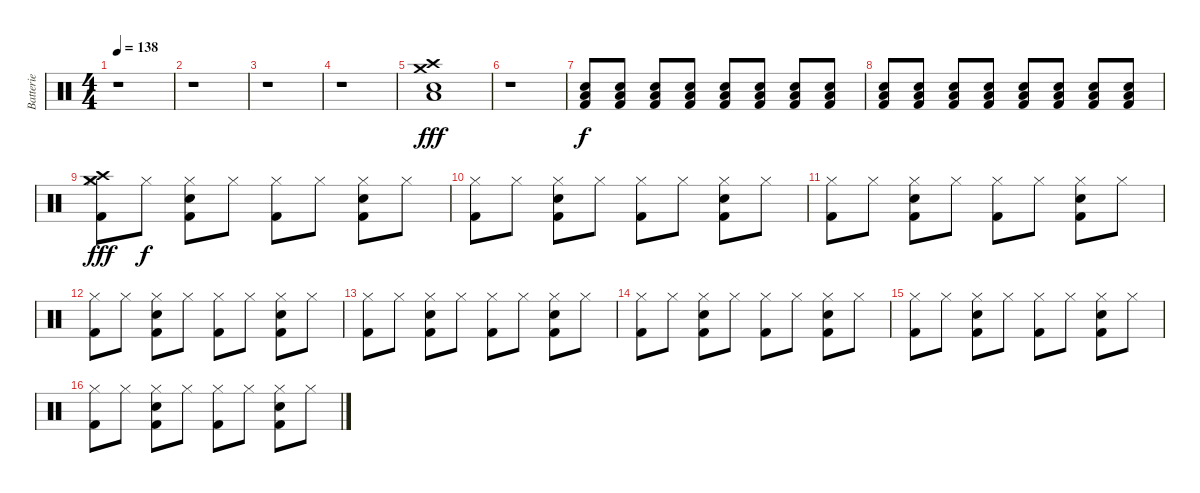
\track ("Batterie" "Batterie") {instrument percussion}
\staff {score}
\articulation defaults
\ts (4 4)
\tempo 138
\clef neutral
\ks c
r.1{dy fff} |
r.1 |
r.1 |
r.1 |
("Crash medium (hit)" "Crash high (hit)" "Electric Snare (hit)" "Low Floor Tom (hit)").1{volume 16} |
r.1 |
("Electric Snare (hit)" "Low Floor Tom (hit)" "Kick (hit) 2").8{dy f volume 8} ("Electric Snare (hit)" "Low Floor Tom (hit)" "Kick (hit) 2").8{volume 14} ("Electric Snare (hit)" "Low Floor Tom (hit)" "Kick (hit) 2").8 ("Electric Snare (hit)" "Low Floor Tom (hit)" "Kick (hit) 2").8 ("Electric Snare (hit)" "Low Floor Tom (hit)" "Kick (hit) 2").8 ("Electric Snare (hit)" "Low Floor Tom (hit)" "Kick (hit) 2").8 ("Electric Snare (hit)" "Low Floor Tom (hit)" "Kick (hit) 2").8 ("Electric Snare (hit)" "Low Floor Tom (hit)" "Kick (hit) 2").8 |
("Electric Snare (hit)" "Low Floor Tom (hit)" "Kick (hit) 2").8 ("Electric Snare (hit)" "Low Floor Tom (hit)" "Kick (hit) 2").8 ("Electric Snare (hit)" "Low Floor Tom (hit)" "Kick (hit) 2").8 ("Electric Snare (hit)" "Low Floor Tom (hit)" "Kick (hit) 2").8 ("Electric Snare (hit)" "Low Floor Tom (hit)" "Kick (hit) 2").8 ("Electric Snare (hit)" "Low Floor Tom (hit)" "Kick (hit) 2").8 ("Electric Snare (hit)" "Low Floor Tom (hit)" "Kick (hit) 2").8 ("Electric Snare (hit)" "Low Floor Tom (hit)" "Kick (hit) 2").8 |
("Crash high (hit)" "Crash medium (hit)" "Hi-Hat (closed)" "Kick (hit) 2").8{dy fff} "Hi-Hat (closed)".8{dy f} ("Hi-Hat (closed)" "Electric Snare (hit)" "Kick (hit) 2").8 "Hi-Hat (closed)".8 ("Hi-Hat (closed)" "Kick (hit) 2").8 "Hi-Hat (closed)".8 ("Hi-Hat (closed)" "Electric Snare (hit)" "Kick (hit) 2").8 "Hi-Hat (closed)".8 |
("Hi-Hat (closed)" "Kick (hit) 2").8 "Hi-Hat (closed)".8 ("Hi-Hat (closed)" "Electric Snare (hit)" "Kick (hit) 2").8 "Hi-Hat (closed)".8 ("Hi-Hat (closed)" "Kick (hit) 2").8 "Hi-Hat (closed)".8 ("Hi-Hat (closed)" "Electric Snare (hit)" "Kick (hit) 2").8 "Hi-Hat (closed)".8 |
("Hi-Hat (closed)" "Kick (hit) 2").8 "Hi-Hat (closed)".8 ("Hi-Hat (closed)" "Electric Snare (hit)" "Kick (hit) 2").8 "Hi-Hat (closed)".8 ("Hi-Hat (closed)" "Kick (hit) 2").8 "Hi-Hat (closed)".8 ("Hi-Hat (closed)" "Electric Snare (hit)" "Kick (hit) 2").8 "Hi-Hat (closed)".8 |
("Hi-Hat (closed)" "Kick (hit) 2").8 "Hi-Hat (closed)".8 ("Hi-Hat (closed)" "Electric Snare (hit)" "Kick (hit) 2").8 "Hi-Hat (closed)".8 ("Hi-Hat (closed)" "Kick (hit) 2").8 "Hi-Hat (closed)".8 ("Hi-Hat (closed)" "Electric Snare (hit)" "Kick (hit) 2").8 "Hi-Hat (closed)".8 |
("Hi-Hat (closed)" "Kick (hit) 2").8 "Hi-Hat (closed)".8 ("Hi-Hat (closed)" "Electric Snare (hit)" "Kick (hit) 2").8 "Hi-Hat (closed)".8 ("Hi-Hat (closed)" "Kick (hit) 2").8 "Hi-Hat (closed)".8 ("Hi-Hat (closed)" "Electric Snare (hit)" "Kick (hit) 2").8 "Hi-Hat (closed)".8 |
("Hi-Hat (closed)" "Kick (hit) 2").8 "Hi-Hat (closed)".8 ("Hi-Hat (closed)" "Electric Snare (hit)" "Kick (hit) 2").8 "Hi-Hat (closed)".8 ("Hi-Hat (closed)" "Kick (hit) 2").8 "Hi-Hat (closed)".8 ("Hi-Hat (closed)" "Electric Snare (hit)" "Kick (hit) 2").8 "Hi-Hat (closed)".8 |
("Hi-Hat (closed)" "Kick (hit) 2").8 "Hi-Hat (closed)".8 ("Hi-Hat (closed)" "Electric Snare (hit)" "Kick (hit) 2").8 "Hi-Hat (closed)".8 ("Hi-Hat (closed)" "Kick (hit) 2").8 "Hi-Hat (closed)".8 ("Hi-Hat (closed)" "Electric Snare (hit)" "Kick (hit) 2").8 "Hi-Hat (closed)".8 |
("Hi-Hat (closed)" "Kick (hit) 2").8 "Hi-Hat (closed)".8 ("Hi-Hat (closed)" "Electric Snare (hit)" "Kick (hit) 2").8 "Hi-Hat (closed)".8 ("Hi-Hat (closed)" "Kick (hit) 2").8 "Hi-Hat (closed)".8 ("Hi-Hat (closed)" "Electric Snare (hit)" "Kick (hit) 2").8 "Hi-Hat (closed)".8
